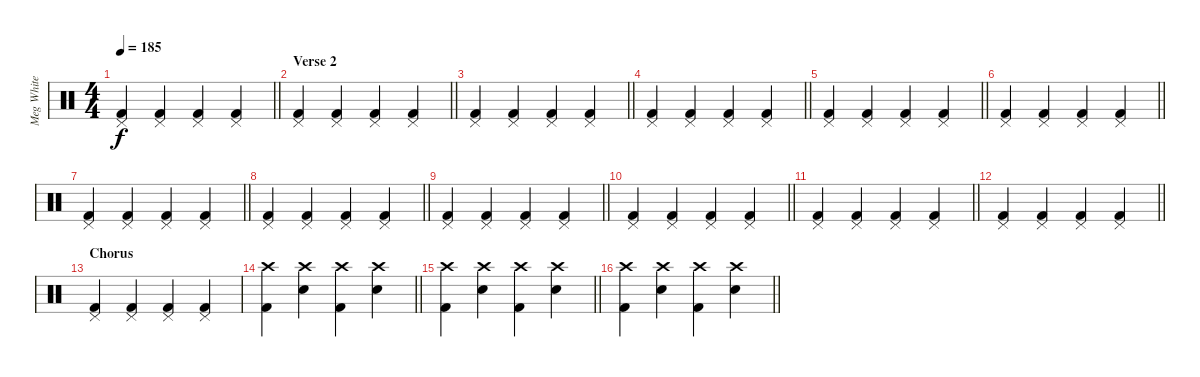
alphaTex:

\track ("Meg White (Drums)" "Meg White ") {instrument percussion}
\staff {score}
\articulation defaults
\ts (4 4)
\tempo 185
\clef neutral
\barLineRight lightlight
\ks c
("Kick (hit) 2" "Pedal Hi-Hat (hit)").4{dy f} ("Kick (hit) 2" "Pedal Hi-Hat (hit)").4 ("Kick (hit) 2" "Pedal Hi-Hat (hit)").4 ("Kick (hit) 2" "Pedal Hi-Hat (hit)").4 |
\section ("" "Verse 2")
\barLineRight lightlight
("Kick (hit) 2" "Pedal Hi-Hat (hit)").4 ("Kick (hit) 2" "Pedal Hi-Hat (hit)").4 ("Kick (hit) 2" "Pedal Hi-Hat (hit)").4 ("Kick (hit) 2" "Pedal Hi-Hat (hit)").4 |
\barLineRight lightlight
("Kick (hit) 2" "Pedal Hi-Hat (hit)").4 ("Kick (hit) 2" "Pedal Hi-Hat (hit)").4 ("Kick (hit) 2" "Pedal Hi-Hat (hit)").4 ("Kick (hit) 2" "Pedal Hi-Hat (hit)").4 |
\barLineRight lightlight
("Kick (hit) 2" "Pedal Hi-Hat (hit)").4 ("Kick (hit) 2" "Pedal Hi-Hat (hit)").4 ("Kick (hit) 2" "Pedal Hi-Hat (hit)").4 ("Kick (hit) 2" "Pedal Hi-Hat (hit)").4 |
\barLineRight lightlight
("Kick (hit) 2" "Pedal Hi-Hat (hit)").4 ("Kick (hit) 2" "Pedal Hi-Hat (hit)").4 ("Kick (hit) 2" "Pedal Hi-Hat (hit)").4 ("Kick (hit) 2" "Pedal Hi-Hat (hit)").4 |
\barLineRight lightlight
("Kick (hit) 2" "Pedal Hi-Hat (hit)").4 ("Kick (hit) 2" "Pedal Hi-Hat (hit)").4 ("Kick (hit) 2" "Pedal Hi-Hat (hit)").4 ("Kick (hit) 2" "Pedal Hi-Hat (hit)").4 |
\barLineRight lightlight
("Kick (hit) 2" "Pedal Hi-Hat (hit)").4 ("Kick (hit) 2" "Pedal Hi-Hat (hit)").4 ("Kick (hit) 2" "Pedal Hi-Hat (hit)").4 ("Kick (hit) 2" "Pedal Hi-Hat (hit)").4 |
\barLineRight lightlight
("Kick (hit) 2" "Pedal Hi-Hat (hit)").4 ("Kick (hit) 2" "Pedal Hi-Hat (hit)").4 ("Kick (hit) 2" "Pedal Hi-Hat (hit)").4 ("Kick (hit) 2" "Pedal Hi-Hat (hit)").4 |
\barLineRight lightlight
("Kick (hit) 2" "Pedal Hi-Hat (hit)").4 ("Kick (hit) 2" "Pedal Hi-Hat (hit)").4 ("Kick (hit) 2" "Pedal Hi-Hat (hit)").4 ("Kick (hit) 2" "Pedal Hi-Hat (hit)").4 |
\barLineRight lightlight
("Kick (hit) 2" "Pedal Hi-Hat (hit)").4 ("Kick (hit) 2" "Pedal Hi-Hat (hit)").4 ("Kick (hit) 2" "Pedal Hi-Hat (hit)").4 ("Kick (hit) 2" "Pedal Hi-Hat (hit)").4 |
\barLineRight lightlight
("Kick (hit) 2" "Pedal Hi-Hat (hit)").4 ("Kick (hit) 2" "Pedal Hi-Hat (hit)").4 ("Kick (hit) 2" "Pedal Hi-Hat (hit)").4 ("Kick (hit) 2" "Pedal Hi-Hat (hit)").4 |
\barLineRight lightlight
("Kick (hit) 2" "Pedal Hi-Hat (hit)").4 ("Kick (hit) 2" "Pedal Hi-Hat (hit)").4 ("Kick (hit) 2" "Pedal Hi-Hat (hit)").4 ("Kick (hit) 2" "Pedal Hi-Hat (hit)").4 |
\section ("" "Chorus")
("Kick (hit) 2" "Pedal Hi-Hat (hit)").4 ("Kick (hit) 2" "Pedal Hi-Hat (hit)").4 ("Kick (hit) 2" "Pedal Hi-Hat (hit)").4 ("Kick (hit) 2" "Pedal Hi-Hat (hit)").4 |
\barLineRight lightlight
("Kick (hit) 2" "Crash high (hit)").4 ("Electric Snare (hit)" "Crash high (hit)").4 ("Kick (hit) 2" "Crash high (hit)").4 ("Electric Snare (hit)" "Crash high (hit)").4 |
\barLineRight lightlight
("Kick (hit) 2" "Crash high (hit)").4 ("Electric Snare (hit)" "Crash high (hit)").4 ("Kick (hit) 2" "Crash high (hit)").4 ("Electric Snare (hit)" "Crash high (hit)").4 |
\barLineRight lightlight
("Kick (hit) 2" "Crash high (hit)").4 ("Electric Snare (hit)" "Crash high (hit)").4 ("Kick (hit) 2" "Crash high (hit)").4 ("Electric Snare (hit)" "Crash high (hit)").4
